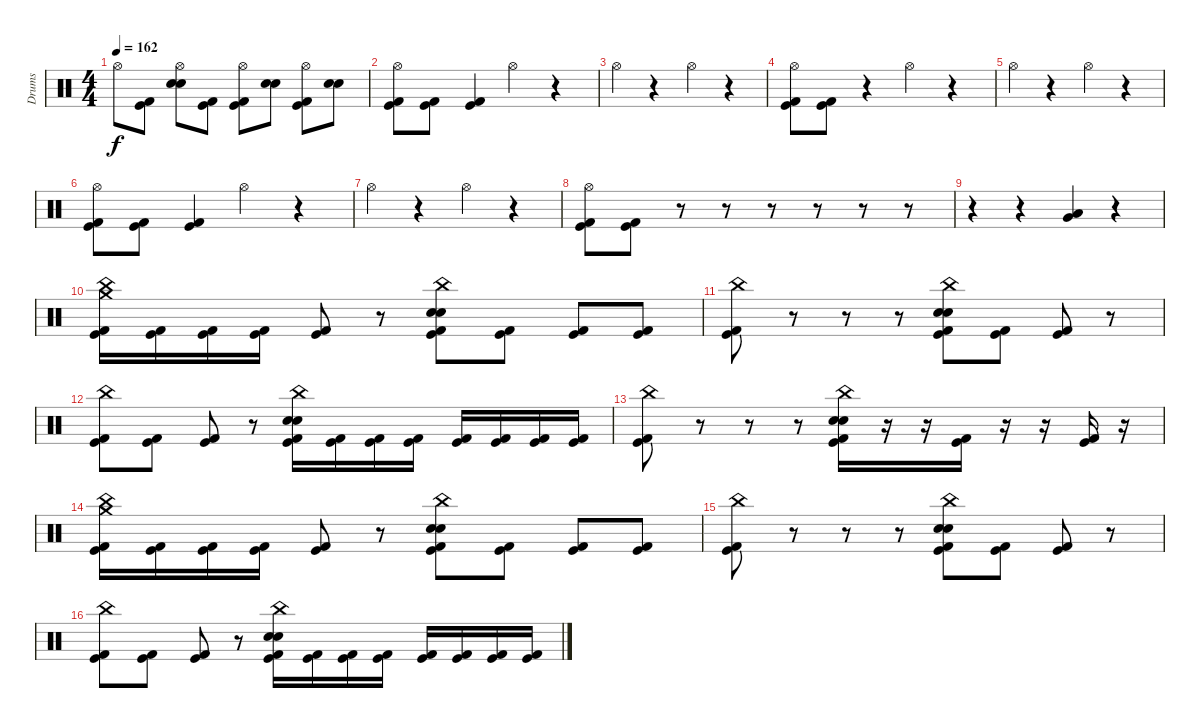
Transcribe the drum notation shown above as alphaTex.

\track ("Drums" "Drums") {instrument percussion}
\staff {score}
\articulation defaults
\ts (4 4)
\tempo 162
\clef neutral
\ks c "Hi-Hat (open)".8{dy f}
("Kick (hit)" "Kick (hit) 2").8 ("Hi-Hat (open)" "Snare (hit) 2" "Electric Snare (hit)").8 ("Kick (hit)" "Kick (hit) 2").8 ("Hi-Hat (open)" "Kick (hit)" "Kick (hit) 2").8 ("Snare (hit) 2" "Electric Snare (hit)").8 ("Hi-Hat (open)" "Kick (hit)" "Kick (hit) 2").8 ("Snare (hit) 2" "Electric Snare (hit)").8 |
("Hi-Hat (open)" "Kick (hit)" "Kick (hit) 2").8 ("Kick (hit)" "Kick (hit) 2").8 ("Kick (hit)" "Kick (hit) 2").4 "Hi-Hat (open)".4 r.4 |
"Hi-Hat (open)".4 r.4 "Hi-Hat (open)".4 r.4 |
("Hi-Hat (open)" "Kick (hit)" "Kick (hit) 2").8 ("Kick (hit)" "Kick (hit) 2").8 r.4 "Hi-Hat (open)".4 r.4 |
"Hi-Hat (open)".4 r.4 "Hi-Hat (open)".4 r.4 |
("Hi-Hat (open)" "Kick (hit)" "Kick (hit) 2").8 ("Kick (hit)" "Kick (hit) 2").8 ("Kick (hit)" "Kick (hit) 2").4 "Hi-Hat (open)".4 r.4 |
"Hi-Hat (open)".4 r.4 "Hi-Hat (open)".4 r.4 |
("Hi-Hat (open)" "Kick (hit)" "Kick (hit) 2").8 ("Kick (hit)" "Kick (hit) 2").8 r.8 r.8 r.8 r.8 r.8 r.8 |
r.4 r.4 ("Very Low Tom (hit)" "Low Floor Tom (hit)").4 r.4 |
("Crash medium (hit)" "China (hit)" "Kick (hit)" "Kick (hit) 2").16 ("Kick (hit)" "Kick (hit) 2").16 ("Kick (hit)" "Kick (hit) 2").16 ("Kick (hit)" "Kick (hit) 2").16 ("Kick (hit)" "Kick (hit) 2").8 r.8 ("China (hit)" "Snare (hit) 2" "Electric Snare (hit)" "Kick (hit)" "Kick (hit) 2").8 ("Kick (hit)" "Kick (hit) 2").8 ("Kick (hit)" "Kick (hit) 2").8 ("Kick (hit)" "Kick (hit) 2").8 |
("China (hit)" "Kick (hit)" "Kick (hit) 2").8 r.8 r.8 r.8 ("China (hit)" "Snare (hit) 2" "Electric Snare (hit)" "Kick (hit)" "Kick (hit) 2").8 ("Kick (hit)" "Kick (hit) 2").8 ("Kick (hit)" "Kick (hit) 2").8 r.8 |
("China (hit)" "Kick (hit)" "Kick (hit) 2").8 ("Kick (hit)" "Kick (hit) 2").8 ("Kick (hit)" "Kick (hit) 2").8 r.8 ("China (hit)" "Snare (hit) 2" "Electric Snare (hit)" "Kick (hit)" "Kick (hit) 2").16 ("Kick (hit)" "Kick (hit) 2").16 ("Kick (hit)" "Kick (hit) 2").16 ("Kick (hit)" "Kick (hit) 2").16 ("Kick (hit)" "Kick (hit) 2").16 ("Kick (hit)" "Kick (hit) 2").16 ("Kick (hit)" "Kick (hit) 2").16 ("Kick (hit)" "Kick (hit) 2").16 |
("China (hit)" "Kick (hit)" "Kick (hit) 2").8 r.8 r.8 r.8 ("China (hit)" "Snare (hit) 2" "Electric Snare (hit)" "Kick (hit)" "Kick (hit) 2").16 r.16 r.16 ("Kick (hit)" "Kick (hit) 2").16 r.16 r.16 ("Kick (hit)" "Kick (hit) 2").16 r.16 |
("Crash medium (hit)" "China (hit)" "Kick (hit)" "Kick (hit) 2").16 ("Kick (hit)" "Kick (hit) 2").16 ("Kick (hit)" "Kick (hit) 2").16 ("Kick (hit)" "Kick (hit) 2").16 ("Kick (hit)" "Kick (hit) 2").8 r.8 ("China (hit)" "Snare (hit) 2" "Electric Snare (hit)" "Kick (hit)" "Kick (hit) 2").8 ("Kick (hit)" "Kick (hit) 2").8 ("Kick (hit)" "Kick (hit) 2").8 ("Kick (hit)" "Kick (hit) 2").8 |
("China (hit)" "Kick (hit)" "Kick (hit) 2").8 r.8 r.8 r.8 ("China (hit)" "Snare (hit) 2" "Electric Snare (hit)" "Kick (hit)" "Kick (hit) 2").8 ("Kick (hit)" "Kick (hit) 2").8 ("Kick (hit)" "Kick (hit) 2").8 r.8 |
("China (hit)" "Kick (hit)" "Kick (hit) 2").8 ("Kick (hit)" "Kick (hit) 2").8 ("Kick (hit)" "Kick (hit) 2").8 r.8 ("China (hit)" "Snare (hit) 2" "Electric Snare (hit)" "Kick (hit)" "Kick (hit) 2").16 ("Kick (hit)" "Kick (hit) 2").16 ("Kick (hit)" "Kick (hit) 2").16 ("Kick (hit)" "Kick (hit) 2").16 ("Kick (hit)" "Kick (hit) 2").16 ("Kick (hit)" "Kick (hit) 2").16 ("Kick (hit)" "Kick (hit) 2").16 ("Kick (hit)" "Kick (hit) 2").16
